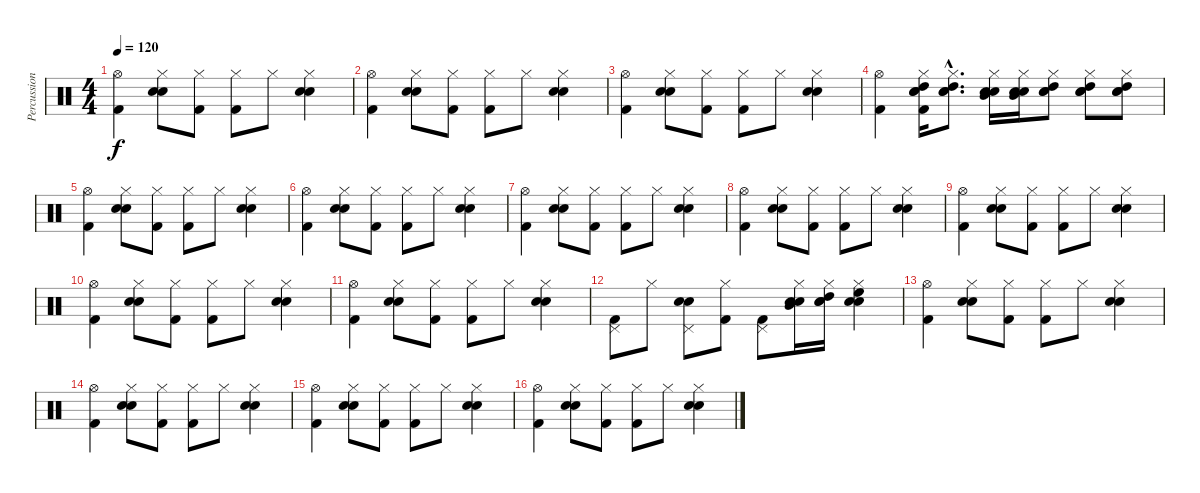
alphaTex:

\track ("Percussions" "Percussion") {instrument percussion}
\staff {score}
\articulation defaults
\ts (4 4)
\tempo 120
\clef neutral
\ks c
("Hi-Hat (open)" "Kick (hit) 2").4{dy f} ("Hi-Hat (closed)" "Electric Snare (hit)" "Snare (hit) 2").8 ("Hi-Hat (closed)" "Kick (hit) 2").8 ("Hi-Hat (closed)" "Kick (hit) 2").8 "Hi-Hat (closed)".8 ("Hi-Hat (closed)" "Electric Snare (hit)" "Snare (hit) 2").4 |
("Hi-Hat (open)" "Kick (hit) 2").4 ("Hi-Hat (closed)" "Electric Snare (hit)" "Snare (hit) 2").8 ("Hi-Hat (closed)" "Kick (hit) 2").8 ("Hi-Hat (closed)" "Kick (hit) 2").8 "Hi-Hat (closed)".8 ("Hi-Hat (closed)" "Electric Snare (hit)" "Snare (hit) 2").4 |
("Hi-Hat (open)" "Kick (hit) 2").4 ("Hi-Hat (closed)" "Electric Snare (hit)" "Snare (hit) 2").8 ("Hi-Hat (closed)" "Kick (hit) 2").8 ("Hi-Hat (closed)" "Kick (hit) 2").8 "Hi-Hat (closed)".8 ("Hi-Hat (closed)" "Electric Snare (hit)" "Snare (hit) 2").4 |
("Hi-Hat (open)" "Kick (hit) 2").4 ("Hi-Hat (closed)" "High Tom (hit)" "Electric Snare (hit)" "Snare (hit) 2" "Kick (hit) 2").16 ("Hi-Hat (closed)"{hac} "High Tom (hit)"{hac} "Electric Snare (hit)"{hac} "Snare (hit) 2"{hac}).8{d} ("Hi-Hat (closed)" "Mid Tom (hit)" "Snare (hit) 2" "Snare (hit) 2").16 ("Hi-Hat (closed)" "Mid Tom (hit)" "Electric Snare (hit)" "Snare (hit) 2").16 ("Hi-Hat (closed)" "High Tom (hit)" "Electric Snare (hit)" "Snare (hit) 2").8 ("Hi-Hat (closed)" "High Tom (hit)" "Electric Snare (hit)" "Snare (hit) 2").8 ("Hi-Hat (closed)" "High Tom (hit)" "Electric Snare (hit)" "Snare (hit) 2").8 |
("Hi-Hat (open)" "Kick (hit) 2").4 ("Hi-Hat (closed)" "Electric Snare (hit)" "Snare (hit) 2").8 ("Hi-Hat (closed)" "Kick (hit) 2").8 ("Hi-Hat (closed)" "Kick (hit) 2").8 "Hi-Hat (closed)".8 ("Hi-Hat (closed)" "Electric Snare (hit)" "Snare (hit) 2").4 |
("Hi-Hat (open)" "Kick (hit) 2").4 ("Hi-Hat (closed)" "Electric Snare (hit)" "Snare (hit) 2").8 ("Hi-Hat (closed)" "Kick (hit) 2").8 ("Hi-Hat (closed)" "Kick (hit) 2").8 "Hi-Hat (closed)".8 ("Hi-Hat (closed)" "Electric Snare (hit)" "Snare (hit) 2").4 |
("Hi-Hat (open)" "Kick (hit) 2").4 ("Hi-Hat (closed)" "Electric Snare (hit)" "Snare (hit) 2").8 ("Hi-Hat (closed)" "Kick (hit) 2").8 ("Hi-Hat (closed)" "Kick (hit) 2").8 "Hi-Hat (closed)".8 ("Hi-Hat (closed)" "Electric Snare (hit)" "Snare (hit) 2").4 |
("Hi-Hat (open)" "Kick (hit) 2").4 ("Hi-Hat (closed)" "Electric Snare (hit)" "Snare (hit) 2").8 ("Hi-Hat (closed)" "Kick (hit) 2").8 ("Hi-Hat (closed)" "Kick (hit) 2").8 "Hi-Hat (closed)".8 ("Hi-Hat (closed)" "Electric Snare (hit)" "Snare (hit) 2").4 |
("Hi-Hat (open)" "Kick (hit) 2").4 ("Hi-Hat (closed)" "Electric Snare (hit)" "Snare (hit) 2").8 ("Hi-Hat (closed)" "Kick (hit) 2").8 ("Hi-Hat (closed)" "Kick (hit) 2").8 "Hi-Hat (closed)".8 ("Hi-Hat (closed)" "Electric Snare (hit)" "Snare (hit) 2").4 |
("Hi-Hat (open)" "Kick (hit) 2").4 ("Hi-Hat (closed)" "Electric Snare (hit)" "Snare (hit) 2").8 ("Hi-Hat (closed)" "Kick (hit) 2").8 ("Hi-Hat (closed)" "Kick (hit) 2").8 "Hi-Hat (closed)".8 ("Hi-Hat (closed)" "Electric Snare (hit)" "Snare (hit) 2").4 |
("Hi-Hat (open)" "Kick (hit) 2").4 ("Hi-Hat (closed)" "Electric Snare (hit)" "Snare (hit) 2").8 ("Hi-Hat (closed)" "Kick (hit) 2").8 ("Hi-Hat (closed)" "Kick (hit) 2").8 "Hi-Hat (closed)".8 ("Hi-Hat (closed)" "Electric Snare (hit)" "Snare (hit) 2").4 |
("Pedal Hi-Hat (hit)" "Kick (hit) 2").8 "Hi-Hat (closed)".8 ("Pedal Hi-Hat (hit)" "Electric Snare (hit)" "Snare (hit) 2").8 ("Hi-Hat (closed)" "Kick (hit) 2").8 ("Pedal Hi-Hat (hit)" "Kick (hit) 2").8 ("Hi-Hat (closed)" "Mid Tom (hit)" "Electric Snare (hit)" "Snare (hit) 2").16 ("Hi-Hat (closed)" "High Tom (hit)" "Electric Snare (hit)" "Snare (hit) 2").16 ("Hi-Hat (closed)" "High Floor Tom (hit)" "Electric Snare (hit)" "Snare (hit) 2").4 |
("Hi-Hat (open)" "Kick (hit) 2").4 ("Hi-Hat (closed)" "Electric Snare (hit)" "Snare (hit) 2").8 ("Hi-Hat (closed)" "Kick (hit) 2").8 ("Hi-Hat (closed)" "Kick (hit) 2").8 "Hi-Hat (closed)".8 ("Hi-Hat (closed)" "Electric Snare (hit)" "Snare (hit) 2").4 |
("Hi-Hat (open)" "Kick (hit) 2").4 ("Hi-Hat (closed)" "Electric Snare (hit)" "Snare (hit) 2").8 ("Hi-Hat (closed)" "Kick (hit) 2").8 ("Hi-Hat (closed)" "Kick (hit) 2").8 "Hi-Hat (closed)".8 ("Hi-Hat (closed)" "Electric Snare (hit)" "Snare (hit) 2").4 |
("Hi-Hat (open)" "Kick (hit) 2").4 ("Hi-Hat (closed)" "Electric Snare (hit)" "Snare (hit) 2").8 ("Hi-Hat (closed)" "Kick (hit) 2").8 ("Hi-Hat (closed)" "Kick (hit) 2").8 "Hi-Hat (closed)".8 ("Hi-Hat (closed)" "Electric Snare (hit)" "Snare (hit) 2").4 |
("Hi-Hat (open)" "Kick (hit) 2").4 ("Hi-Hat (closed)" "Electric Snare (hit)" "Snare (hit) 2").8 ("Hi-Hat (closed)" "Kick (hit) 2").8 ("Hi-Hat (closed)" "Kick (hit) 2").8 "Hi-Hat (closed)".8 ("Hi-Hat (closed)" "Electric Snare (hit)" "Snare (hit) 2").4
